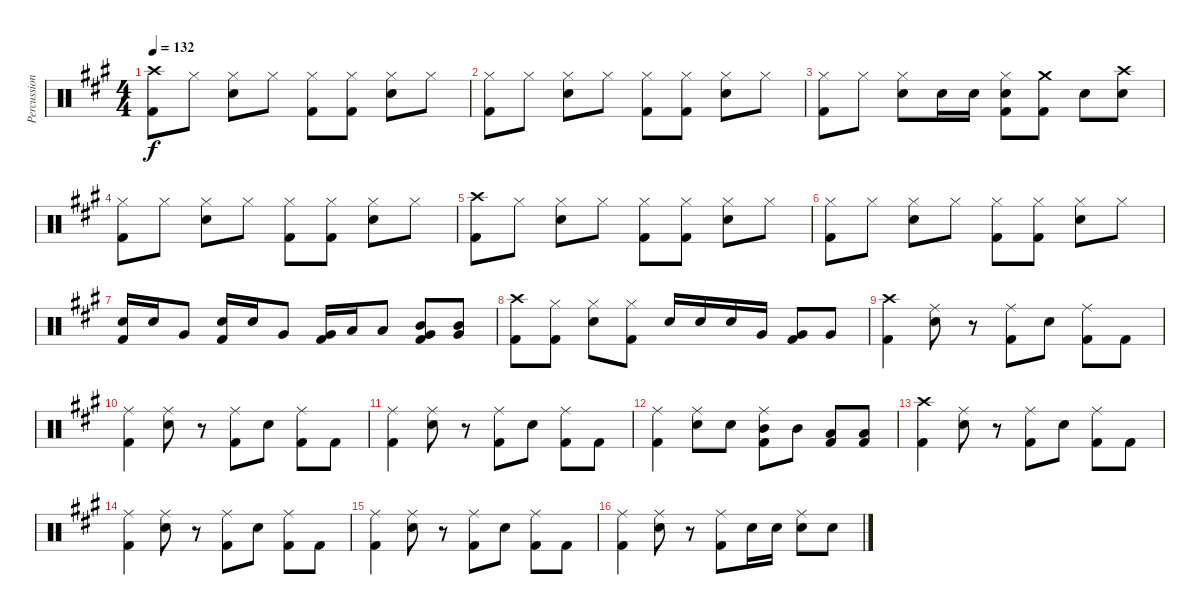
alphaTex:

\track ("Percussion" "Percussion") {instrument percussion}
\staff {score}
\articulation defaults
\ts (4 4)
\tempo 132
\clef neutral
\ks a
("Crash high (hit)" "Kick (hit) 2").8{dy f} "Hi-Hat (closed)".8 ("Hi-Hat (closed)" "Snare (hit) 2").8 "Hi-Hat (closed)".8 ("Hi-Hat (closed)" "Kick (hit) 2").8 ("Hi-Hat (closed)" "Kick (hit) 2").8 ("Hi-Hat (closed)" "Snare (hit) 2").8 "Hi-Hat (closed)".8 |
("Hi-Hat (closed)" "Kick (hit) 2").8 "Hi-Hat (closed)".8 ("Hi-Hat (closed)" "Snare (hit) 2").8 "Hi-Hat (closed)".8 ("Hi-Hat (closed)" "Kick (hit) 2").8 ("Hi-Hat (closed)" "Kick (hit) 2").8 ("Hi-Hat (closed)" "Snare (hit) 2").8 "Hi-Hat (closed)".8 |
("Hi-Hat (closed)" "Kick (hit) 2").8 "Hi-Hat (closed)".8 ("Hi-Hat (closed)" "Snare (hit) 2").8 "Snare (hit) 2".16 "Snare (hit) 2".16 ("Hi-Hat (closed)" "Snare (hit) 2" "Kick (hit) 2").8 ("Crash medium (hit)" "Kick (hit) 2").8 "Snare (hit) 2".8 ("Crash high (hit)" "Snare (hit) 2").8 |
("Hi-Hat (closed)" "Kick (hit) 2").8 "Hi-Hat (closed)".8 ("Hi-Hat (closed)" "Snare (hit) 2").8 "Hi-Hat (closed)".8 ("Hi-Hat (closed)" "Kick (hit) 2").8 ("Hi-Hat (closed)" "Kick (hit) 2").8 ("Hi-Hat (closed)" "Snare (hit) 2").8 "Hi-Hat (closed)".8 |
("Crash high (hit)" "Kick (hit) 2").8 "Hi-Hat (closed)".8 ("Hi-Hat (closed)" "Snare (hit) 2").8 "Hi-Hat (closed)".8 ("Hi-Hat (closed)" "Kick (hit) 2").8 ("Hi-Hat (closed)" "Kick (hit) 2").8 ("Hi-Hat (closed)" "Snare (hit) 2").8 "Hi-Hat (closed)".8 |
("Hi-Hat (closed)" "Kick (hit) 2").8 "Hi-Hat (closed)".8 ("Hi-Hat (closed)" "Snare (hit) 2").8 "Hi-Hat (closed)".8 ("Hi-Hat (closed)" "Kick (hit) 2").8 ("Hi-Hat (closed)" "Kick (hit) 2").8 ("Hi-Hat (closed)" "Snare (hit) 2").8 "Hi-Hat (closed)".8 |
("Snare (hit) 2" "Kick (hit) 2").16 "Snare (hit) 2".16 "Very Low Tom (hit)".8 ("Snare (hit) 2" "Kick (hit) 2").16 "Snare (hit) 2".16 "Very Low Tom (hit)".8 ("Very Low Tom (hit)" "Kick (hit) 2").16 "Low Tom (hit)".16 "Low Tom (hit)".8 ("Mid Tom (hit)" "Very Low Tom (hit)" "Kick (hit) 2").8 ("Mid Tom (hit)" "Very Low Tom (hit)").8 |
("Crash high (hit)" "Kick (hit) 2").8 ("Hi-Hat (closed)" "Kick (hit) 2").8 ("Hi-Hat (closed)" "Snare (hit) 2").8 ("Hi-Hat (closed)" "Kick (hit) 2").8 "Snare (hit) 2".16 "Snare (hit) 2".16 "Snare (hit) 2".16 "Very Low Tom (hit)".16 ("Very Low Tom (hit)" "Kick (hit) 2").8 "Very Low Tom (hit)".8 |
("Crash high (hit)" "Kick (hit) 2").4 ("Ride (middle)" "Snare (hit) 2").8 r.8 ("Ride (middle)" "Kick (hit) 2").8 "Snare (hit) 2".8 ("Ride (middle)" "Kick (hit) 2").8 "Kick (hit) 2".8 |
("Ride (middle)" "Kick (hit) 2").4 ("Ride (middle)" "Snare (hit) 2").8 r.8 ("Ride (middle)" "Kick (hit) 2").8 "Snare (hit) 2".8 ("Ride (middle)" "Kick (hit) 2").8 "Kick (hit) 2".8 |
("Ride (middle)" "Kick (hit) 2").4 ("Ride (middle)" "Snare (hit) 2").8 r.8 ("Ride (middle)" "Kick (hit) 2").8 "Snare (hit) 2".8 ("Ride (middle)" "Kick (hit) 2").8 "Kick (hit) 2".8 |
("Ride (middle)" "Kick (hit) 2").4 ("Ride (middle)" "Snare (hit) 2").8 "Snare (hit) 2".8 ("Ride (middle)" "Mid Tom (hit)" "Kick (hit) 2").8 "Mid Tom (hit)".8 ("Low Tom (hit)" "Kick (hit) 2").8 ("Low Tom (hit)" "Kick (hit) 2").8 |
("Crash high (hit)" "Kick (hit) 2").4 ("Ride (middle)" "Snare (hit) 2").8 r.8 ("Ride (middle)" "Kick (hit) 2").8 "Snare (hit) 2".8 ("Ride (middle)" "Kick (hit) 2").8 "Kick (hit) 2".8 |
("Ride (middle)" "Kick (hit) 2").4 ("Ride (middle)" "Snare (hit) 2").8 r.8 ("Ride (middle)" "Kick (hit) 2").8 "Snare (hit) 2".8 ("Ride (middle)" "Kick (hit) 2").8 "Kick (hit) 2".8 |
("Ride (middle)" "Kick (hit) 2").4 ("Ride (middle)" "Snare (hit) 2").8 r.8 ("Ride (middle)" "Kick (hit) 2").8 "Snare (hit) 2".8 ("Ride (middle)" "Kick (hit) 2").8 "Kick (hit) 2".8 |
("Ride (middle)" "Kick (hit) 2").4 ("Ride (middle)" "Snare (hit) 2").8 r.8 ("Ride (middle)" "Kick (hit) 2").8 "Snare (hit) 2".16 "Snare (hit) 2".16 ("Ride (middle)" "Snare (hit) 2").8 "Snare (hit) 2".8
